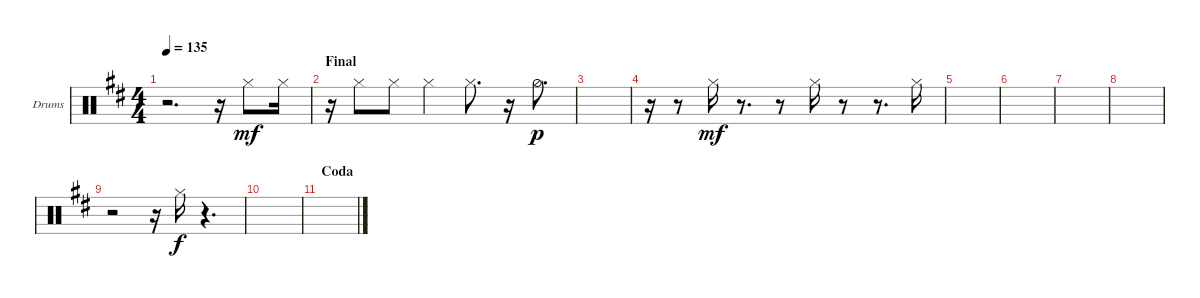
\bracketExtendMode groupsimilarinstruments
\firstSystemTrackNameOrientation horizontal
\otherSystemsTrackNameOrientation horizontal
\track ("HH" "Drums") {instrument percussion}
\staff {score}
\articulation defaults
\ts (4 4)
\tempo 135
\clef neutral
\ks d
r.2{d dy mp} r.16 "Hi-Hat (closed)".8{dy mf} "Hi-Hat (closed)".16 |
\section ("" "Final")
r.16 "Hi-Hat (closed)".8 "Hi-Hat (closed)".8 "Hi-Hat (closed)".4 "Hi-Hat (closed)".8{d} r.16 "Hi-Hat (half)".8{d dy p} |
|
r.16 r.8 "Hi-Hat (closed)".16{dy mf} r.8{d} r.8 "Hi-Hat (closed)".16 r.8 r.8{d} "Hi-Hat (closed)".16 |
|
|
|
|
r.2 r.16 "Hi-Hat (closed)".16{dy f} r.4{d} |
|
\section ("" "Coda")
